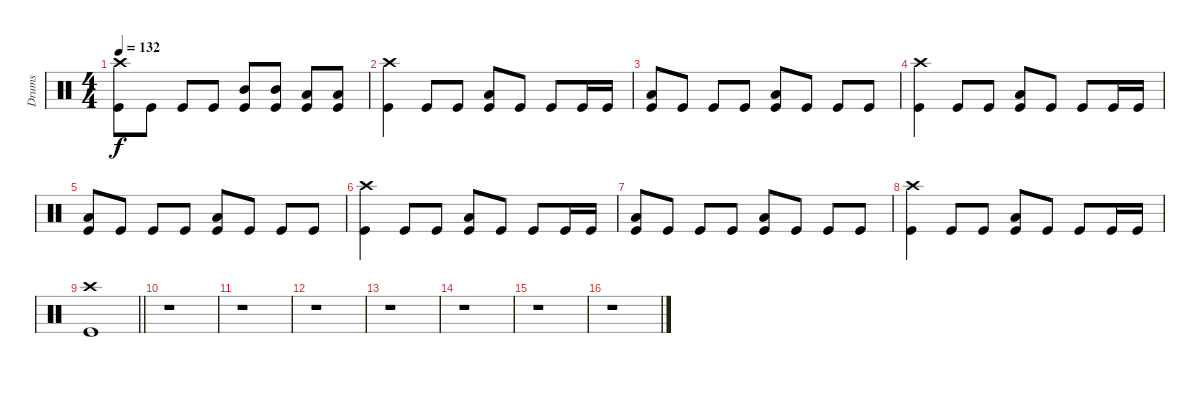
\track ("Drums" "Drums") {instrument percussion}
\staff {score}
\articulation defaults
\ts (4 4)
\tempo 132
\clef neutral
\ks c
("Crash high (hit)" "Kick (hit)").8{dy f} "Kick (hit)".8 "Kick (hit)".8 "Kick (hit)".8 ("Mid Tom (hit)" "Kick (hit)").8 ("Mid Tom (hit)" "Kick (hit)").8 ("Low Tom (hit)" "Kick (hit)").8 ("Low Tom (hit)" "Kick (hit)").8 |
("Crash high (hit)" "Kick (hit)").4 "Kick (hit)".8 "Kick (hit)".8 ("Low Floor Tom (hit)" "Kick (hit)").8 "Kick (hit)".8 "Kick (hit)".8 "Kick (hit)".16 "Kick (hit)".16 |
("Low Floor Tom (hit)" "Kick (hit)").8 "Kick (hit)".8 "Kick (hit)".8 "Kick (hit)".8 ("Low Floor Tom (hit)" "Kick (hit)").8 "Kick (hit)".8 "Kick (hit)".8 "Kick (hit)".8 |
("Crash high (hit)" "Kick (hit)").4 "Kick (hit)".8 "Kick (hit)".8 ("Low Floor Tom (hit)" "Kick (hit)").8 "Kick (hit)".8 "Kick (hit)".8 "Kick (hit)".16 "Kick (hit)".16 |
("Low Floor Tom (hit)" "Kick (hit)").8 "Kick (hit)".8 "Kick (hit)".8 "Kick (hit)".8 ("Low Floor Tom (hit)" "Kick (hit)").8 "Kick (hit)".8 "Kick (hit)".8 "Kick (hit)".8 |
("Crash high (hit)" "Kick (hit)").4 "Kick (hit)".8 "Kick (hit)".8 ("Low Floor Tom (hit)" "Kick (hit)").8 "Kick (hit)".8 "Kick (hit)".8 "Kick (hit)".16 "Kick (hit)".16 |
("Low Floor Tom (hit)" "Kick (hit)").8 "Kick (hit)".8 "Kick (hit)".8 "Kick (hit)".8 ("Low Floor Tom (hit)" "Kick (hit)").8 "Kick (hit)".8 "Kick (hit)".8 "Kick (hit)".8 |
("Crash high (hit)" "Kick (hit)").4 "Kick (hit)".8 "Kick (hit)".8 ("Low Floor Tom (hit)" "Kick (hit)").8 "Kick (hit)".8 "Kick (hit)".8 "Kick (hit)".16 "Kick (hit)".16 |
\barLineRight lightlight
("Crash high (hit)" "Kick (hit)").1 |
\section ("" "")
r.1 |
r.1 |
r.1 |
r.1 |
r.1 |
r.1 |
r.1
